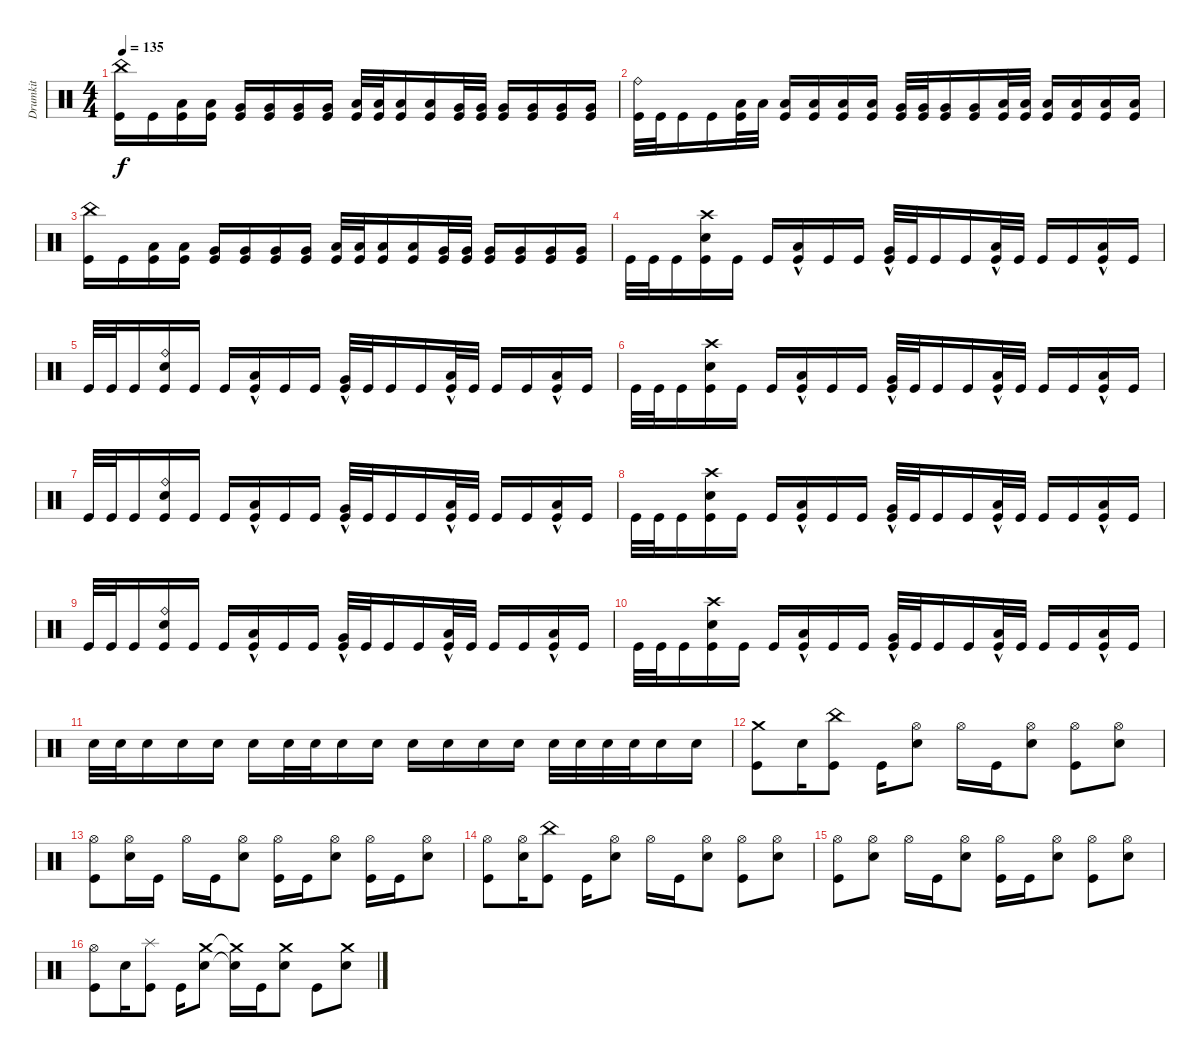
\track ("Drumkit" "Drumkit") {instrument percussion}
\staff {score}
\articulation defaults
\ts (4 4)
\tempo 135
\clef neutral
\ks c
("Kick (hit)" "China (hit)").16{dy f} "Kick (hit)".16 ("Kick (hit)" "Low Floor Tom (hit)").16 ("Kick (hit)" "Low Floor Tom (hit)").16 ("Kick (hit)" "Very Low Tom (hit)").16 ("Kick (hit)" "Very Low Tom (hit)").16 ("Kick (hit)" "Very Low Tom (hit)").16 ("Kick (hit)" "Very Low Tom (hit)").16 ("Kick (hit)" "Low Tom (hit)").32 ("Kick (hit)" "Low Tom (hit)").32 ("Kick (hit)" "Low Tom (hit)").16 ("Kick (hit)" "Low Tom (hit)").16 ("Kick (hit)" "Very Low Tom (hit)").32 ("Kick (hit)" "Very Low Tom (hit)").32 ("Kick (hit)" "Very Low Tom (hit)").16 ("Kick (hit)" "Very Low Tom (hit)").16 ("Kick (hit)" "Very Low Tom (hit)").16 ("Kick (hit)" "Very Low Tom (hit)").16 |
("Ride (bell)" "Kick (hit)").32 "Kick (hit)".32 "Kick (hit)".16 "Kick (hit)".16 ("Kick (hit)" "Low Tom (hit)").32 "Low Tom (hit)".32 ("Low Tom (hit)" "Kick (hit)").16 ("Kick (hit)" "Low Tom (hit)").16 ("Low Tom (hit)" "Kick (hit)").16 ("Low Tom (hit)" "Kick (hit)").16 ("Kick (hit)" "Very Low Tom (hit)").32 ("Kick (hit)" "Very Low Tom (hit)").32 ("Kick (hit)" "Very Low Tom (hit)").16 ("Kick (hit)" "Very Low Tom (hit)").16 ("Kick (hit)" "Low Floor Tom (hit)").32 ("Kick (hit)" "Low Floor Tom (hit)").32 ("Kick (hit)" "Low Floor Tom (hit)").16 ("Kick (hit)" "Low Floor Tom (hit)").16 ("Kick (hit)" "Low Floor Tom (hit)").16 ("Kick (hit)" "Low Floor Tom (hit)").16 |
("Kick (hit)" "China (hit)").16 "Kick (hit)".16 ("Kick (hit)" "Low Floor Tom (hit)").16 ("Kick (hit)" "Low Floor Tom (hit)").16 ("Kick (hit)" "Very Low Tom (hit)").16 ("Kick (hit)" "Very Low Tom (hit)").16 ("Kick (hit)" "Very Low Tom (hit)").16 ("Kick (hit)" "Very Low Tom (hit)").16 ("Kick (hit)" "Low Tom (hit)").32 ("Kick (hit)" "Low Tom (hit)").32 ("Kick (hit)" "Low Tom (hit)").16 ("Kick (hit)" "Low Tom (hit)").16 ("Kick (hit)" "Very Low Tom (hit)").32 ("Kick (hit)" "Very Low Tom (hit)").32 ("Kick (hit)" "Very Low Tom (hit)").16 ("Kick (hit)" "Very Low Tom (hit)").16 ("Kick (hit)" "Very Low Tom (hit)").16 ("Kick (hit)" "Very Low Tom (hit)").16 |
"Kick (hit)".32 "Kick (hit)".32 "Kick (hit)".16 ("Kick (hit)" "Snare (hit) 2" "Crash high (hit)").16 "Kick (hit)".16 "Kick (hit)".16 ("Kick (hit)" "Low Tom (hit)"{hac}).16 "Kick (hit)".16 "Kick (hit)".16 ("Kick (hit)" "Very Low Tom (hit)"{hac}).32 "Kick (hit)".32 "Kick (hit)".16 "Kick (hit)".16 ("Kick (hit)" "Low Floor Tom (hit)"{hac}).32 "Kick (hit)".32 "Kick (hit)".16 "Kick (hit)".16 ("Kick (hit)" "Low Floor Tom (hit)"{hac}).16 "Kick (hit)".16 |
"Kick (hit)".32 "Kick (hit)".32 "Kick (hit)".16 ("Kick (hit)" "Snare (hit) 2" "Ride (bell)").16 "Kick (hit)".16 "Kick (hit)".16 ("Kick (hit)" "Low Tom (hit)"{hac}).16 "Kick (hit)".16 "Kick (hit)".16 ("Kick (hit)" "Very Low Tom (hit)"{hac}).32 "Kick (hit)".32 "Kick (hit)".16 "Kick (hit)".16 ("Kick (hit)" "Low Floor Tom (hit)"{hac}).32 "Kick (hit)".32 "Kick (hit)".16 "Kick (hit)".16 ("Kick (hit)" "Low Floor Tom (hit)"{hac}).16 "Kick (hit)".16 |
"Kick (hit)".32 "Kick (hit)".32 "Kick (hit)".16 ("Kick (hit)" "Snare (hit) 2" "Crash high (hit)").16 "Kick (hit)".16 "Kick (hit)".16 ("Kick (hit)" "Low Tom (hit)"{hac}).16 "Kick (hit)".16 "Kick (hit)".16 ("Kick (hit)" "Very Low Tom (hit)"{hac}).32 "Kick (hit)".32 "Kick (hit)".16 "Kick (hit)".16 ("Kick (hit)" "Low Floor Tom (hit)"{hac}).32 "Kick (hit)".32 "Kick (hit)".16 "Kick (hit)".16 ("Kick (hit)" "Low Floor Tom (hit)"{hac}).16 "Kick (hit)".16 |
"Kick (hit)".32 "Kick (hit)".32 "Kick (hit)".16 ("Kick (hit)" "Snare (hit) 2" "Ride (bell)").16 "Kick (hit)".16 "Kick (hit)".16 ("Kick (hit)" "Low Tom (hit)"{hac}).16 "Kick (hit)".16 "Kick (hit)".16 ("Kick (hit)" "Very Low Tom (hit)"{hac}).32 "Kick (hit)".32 "Kick (hit)".16 "Kick (hit)".16 ("Kick (hit)" "Low Floor Tom (hit)"{hac}).32 "Kick (hit)".32 "Kick (hit)".16 "Kick (hit)".16 ("Kick (hit)" "Low Floor Tom (hit)"{hac}).16 "Kick (hit)".16 |
"Kick (hit)".32 "Kick (hit)".32 "Kick (hit)".16 ("Kick (hit)" "Snare (hit) 2" "Crash high (hit)").16 "Kick (hit)".16 "Kick (hit)".16 ("Kick (hit)" "Low Tom (hit)"{hac}).16 "Kick (hit)".16 "Kick (hit)".16 ("Kick (hit)" "Very Low Tom (hit)"{hac}).32 "Kick (hit)".32 "Kick (hit)".16 "Kick (hit)".16 ("Kick (hit)" "Low Floor Tom (hit)"{hac}).32 "Kick (hit)".32 "Kick (hit)".16 "Kick (hit)".16 ("Kick (hit)" "Low Floor Tom (hit)"{hac}).16 "Kick (hit)".16 |
"Kick (hit)".32 "Kick (hit)".32 "Kick (hit)".16 ("Kick (hit)" "Snare (hit) 2" "Ride (bell)").16 "Kick (hit)".16 "Kick (hit)".16 ("Kick (hit)" "Low Tom (hit)"{hac}).16 "Kick (hit)".16 "Kick (hit)".16 ("Kick (hit)" "Very Low Tom (hit)"{hac}).32 "Kick (hit)".32 "Kick (hit)".16 "Kick (hit)".16 ("Kick (hit)" "Low Floor Tom (hit)"{hac}).32 "Kick (hit)".32 "Kick (hit)".16 "Kick (hit)".16 ("Kick (hit)" "Low Floor Tom (hit)"{hac}).16 "Kick (hit)".16 |
"Kick (hit)".32 "Kick (hit)".32 "Kick (hit)".16 ("Kick (hit)" "Snare (hit) 2" "Crash high (hit)").16 "Kick (hit)".16 "Kick (hit)".16 ("Kick (hit)" "Low Tom (hit)"{hac}).16 "Kick (hit)".16 "Kick (hit)".16 ("Kick (hit)" "Very Low Tom (hit)"{hac}).32 "Kick (hit)".32 "Kick (hit)".16 "Kick (hit)".16 ("Kick (hit)" "Low Floor Tom (hit)"{hac}).32 "Kick (hit)".32 "Kick (hit)".16 "Kick (hit)".16 ("Kick (hit)" "Low Floor Tom (hit)"{hac}).16 "Kick (hit)".16 |
"Snare (hit) 2".32 "Snare (hit) 2".32 "Snare (hit) 2".16 "Snare (hit) 2".16 "Snare (hit) 2".16 "Snare (hit) 2".16 "Snare (hit) 2".32 "Snare (hit) 2".32 "Snare (hit) 2".16 "Snare (hit) 2".16 "Snare (hit) 2".16 "Snare (hit) 2".16 "Snare (hit) 2".16 "Snare (hit) 2".16 "Snare (hit) 2".32 "Snare (hit) 2".32 "Snare (hit) 2".32 "Snare (hit) 2".32 "Snare (hit) 2".16 "Snare (hit) 2".16 |
("Kick (hit)" "Crash medium (hit)").8 "Snare (hit) 2".16 ("Kick (hit)" "China (hit)").8 "Kick (hit)".16 ("Snare (hit) 2" "Hi-Hat (open)").8 "Hi-Hat (open)".16 "Kick (hit)".16 ("Snare (hit) 2" "Hi-Hat (open)").8 ("Kick (hit)" "Hi-Hat (open)").8 ("Snare (hit) 2" "Hi-Hat (open)").8 |
("Kick (hit)" "Hi-Hat (open)").8 ("Hi-Hat (open)" "Snare (hit) 2").16 "Kick (hit)".16 "Hi-Hat (open)".16 "Kick (hit)".16 ("Snare (hit) 2" "Hi-Hat (open)").8 ("Kick (hit)" "Hi-Hat (open)").16 "Kick (hit)".16 ("Snare (hit) 2" "Hi-Hat (open)").8 ("Kick (hit)" "Hi-Hat (open)").16 "Kick (hit)".16 ("Snare (hit) 2" "Hi-Hat (open)").8 |
("Kick (hit)" "Hi-Hat (open)").8 ("Hi-Hat (open)" "Snare (hit) 2").16 ("Kick (hit)" "China (hit)").8 "Kick (hit)".16 ("Snare (hit) 2" "Hi-Hat (open)").8 "Hi-Hat (open)".16 "Kick (hit)".16 ("Snare (hit) 2" "Hi-Hat (open)").8 ("Kick (hit)" "Hi-Hat (open)").8 ("Snare (hit) 2" "Hi-Hat (open)").8 |
("Kick (hit)" "Hi-Hat (open)").8 ("Snare (hit) 2" "Hi-Hat (open)").8 "Hi-Hat (open)".16 "Kick (hit)".16 ("Snare (hit) 2" "Hi-Hat (open)").8 ("Kick (hit)" "Hi-Hat (open)").16 "Kick (hit)".16 ("Snare (hit) 2" "Hi-Hat (open)").8 ("Kick (hit)" "Hi-Hat (open)").8 ("Snare (hit) 2" "Hi-Hat (open)").8 |
("Kick (hit)" "Hi-Hat (open)").8 "Snare (hit) 2".16 ("Splash (hit)" "Kick (hit)").8 "Kick (hit)".16 ("Snare (hit) 2" "Crash medium (hit)").8 ("Snare (hit) 2"{t} "Crash medium (hit)"{t}).16 "Kick (hit)".16 ("Snare (hit) 2" "Crash medium (hit)").8 "Kick (hit)".8 ("Snare (hit) 2" "Crash medium (hit)").8
